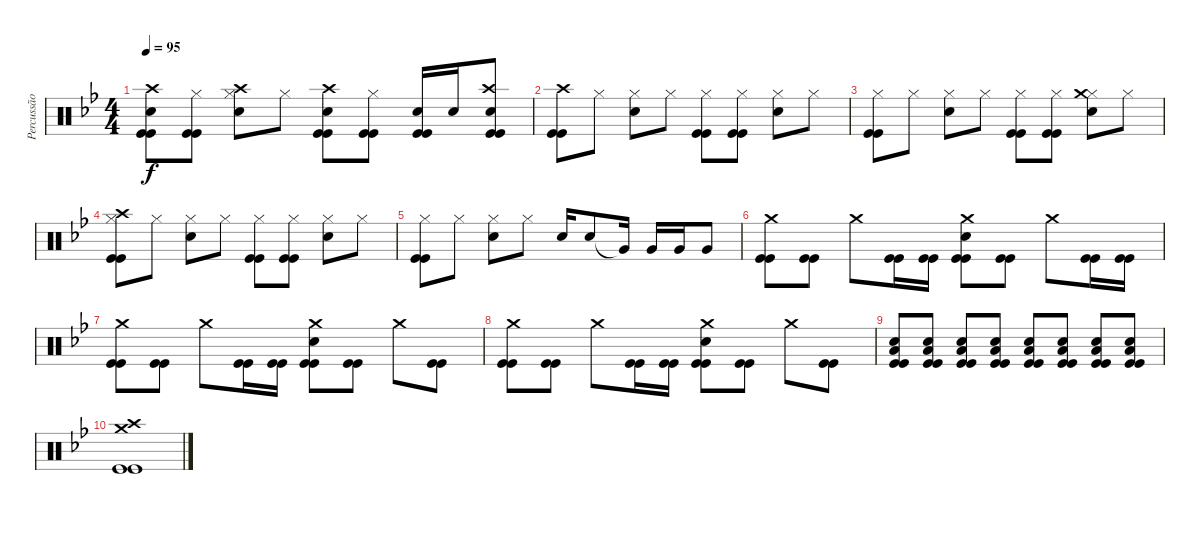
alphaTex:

\track ("Percussão" "Percussão") {instrument percussion}
\staff {score}
\articulation defaults
\ts (4 4)
\tempo 95
\clef neutral
\ks gminor
("Kick (hit)" "Kick (hit)" "Crash high (hit)" "Electric Snare (hit)").8{dy f} ("Kick (hit)" "Kick (hit)" "Hi-Hat (closed)").8 ("Electric Snare (hit)" "Hi-Hat (closed)" "Crash high (hit)").8 "Hi-Hat (closed)".8 ("Kick (hit)" "Kick (hit)" "Crash high (hit)" "Electric Snare (hit)").8 ("Kick (hit)" "Kick (hit)" "Hi-Hat (closed)").8 ("Kick (hit)" "Kick (hit)" "Electric Snare (hit)").16 "Electric Snare (hit)".16 ("Kick (hit)" "Kick (hit)" "Electric Snare (hit)" "Crash high (hit)").8 |
("Kick (hit)" "Kick (hit)" "Crash high (hit)").8 "Hi-Hat (closed)".8 ("Electric Snare (hit)" "Hi-Hat (closed)").8 "Hi-Hat (closed)".8 ("Kick (hit)" "Kick (hit)" "Hi-Hat (closed)").8 ("Kick (hit)" "Kick (hit)" "Hi-Hat (closed)").8 ("Electric Snare (hit)" "Hi-Hat (closed)").8 "Hi-Hat (closed)".8 |
("Kick (hit)" "Kick (hit)" "Hi-Hat (closed)").8 "Hi-Hat (closed)".8 ("Electric Snare (hit)" "Hi-Hat (closed)").8 "Hi-Hat (closed)".8 ("Kick (hit)" "Kick (hit)" "Hi-Hat (closed)").8 ("Kick (hit)" "Kick (hit)" "Hi-Hat (closed)").8 ("Electric Snare (hit)" "Hi-Hat (closed)" "Crash medium (hit)").8 "Hi-Hat (closed)".8 |
("Kick (hit)" "Kick (hit)" "Hi-Hat (closed)" "Crash high (hit)").8 "Hi-Hat (closed)".8 ("Electric Snare (hit)" "Hi-Hat (closed)").8 "Hi-Hat (closed)".8 ("Kick (hit)" "Kick (hit)" "Hi-Hat (closed)").8 ("Kick (hit)" "Kick (hit)" "Hi-Hat (closed)").8 ("Electric Snare (hit)" "Hi-Hat (closed)").8 "Hi-Hat (closed)".8 |
("Kick (hit)" "Kick (hit)" "Hi-Hat (closed)").8 "Hi-Hat (closed)".8 ("Electric Snare (hit)" "Hi-Hat (closed)").8 "Hi-Hat (closed)".8 "Electric Snare (hit)".16 "Electric Snare (hit)".8 "Very Low Tom (hit)"{t}.16 "Very Low Tom (hit)".16 "Very Low Tom (hit)".16 "Very Low Tom (hit)".8 |
("Kick (hit)" "Kick (hit)" "Crash medium (hit)").8 ("Kick (hit)" "Kick (hit)").8 "Crash medium (hit)".8 ("Kick (hit)" "Kick (hit)").16 ("Kick (hit)" "Kick (hit)").16 ("Kick (hit)" "Kick (hit)" "Electric Snare (hit)" "Crash medium (hit)").8 ("Kick (hit)" "Kick (hit)").8 "Crash medium (hit)".8 ("Kick (hit)" "Kick (hit)").16 ("Kick (hit)" "Kick (hit)").16 |
("Kick (hit)" "Kick (hit)" "Crash medium (hit)").8 ("Kick (hit)" "Kick (hit)").8 "Crash medium (hit)".8 ("Kick (hit)" "Kick (hit)").16 ("Kick (hit)" "Kick (hit)").16 ("Kick (hit)" "Kick (hit)" "Electric Snare (hit)" "Crash medium (hit)").8 ("Kick (hit)" "Kick (hit)").8 "Crash medium (hit)".8 ("Kick (hit)" "Kick (hit)").8 |
("Kick (hit)" "Kick (hit)" "Crash medium (hit)").8 ("Kick (hit)" "Kick (hit)").8 "Crash medium (hit)".8 ("Kick (hit)" "Kick (hit)").16 ("Kick (hit)" "Kick (hit)").16 ("Kick (hit)" "Kick (hit)" "Electric Snare (hit)" "Crash medium (hit)").8 ("Kick (hit)" "Kick (hit)").8 "Crash medium (hit)".8 ("Kick (hit)" "Kick (hit)").8 |
("Kick (hit)" "Kick (hit)" "Electric Snare (hit)" "Low Floor Tom (hit)").8 ("Kick (hit)" "Kick (hit)" "Electric Snare (hit)" "Low Floor Tom (hit)").8 ("Kick (hit)" "Kick (hit)" "Electric Snare (hit)" "Low Floor Tom (hit)").8 ("Kick (hit)" "Kick (hit)" "Electric Snare (hit)" "Low Floor Tom (hit)").8 ("Kick (hit)" "Kick (hit)" "Electric Snare (hit)" "Low Floor Tom (hit)").8 ("Kick (hit)" "Kick (hit)" "Electric Snare (hit)" "Low Floor Tom (hit)").8 ("Kick (hit)" "Kick (hit)" "Electric Snare (hit)" "Low Floor Tom (hit)").8 ("Kick (hit)" "Kick (hit)" "Electric Snare (hit)" "Low Floor Tom (hit)").8 |
("Kick (hit)" "Kick (hit)" "Crash high (hit)" "Crash medium (hit)").1
